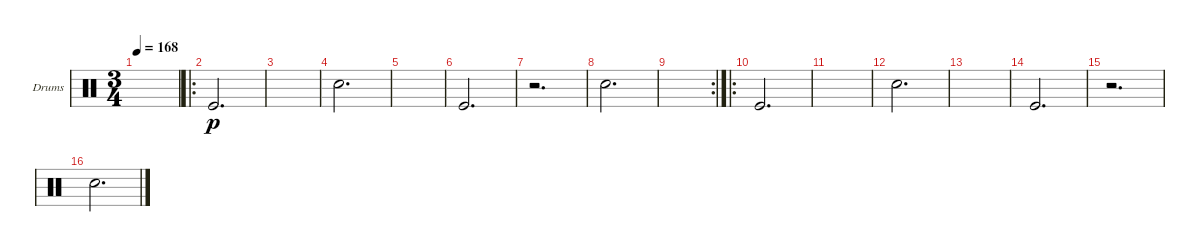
\defaultSystemsLayout 4
\bracketExtendMode groupsimilarinstruments
\firstSystemTrackNameOrientation horizontal
\otherSystemsTrackNameOrientation horizontal
\track ("Drumkit" "Drums") {instrument percussion}
\staff {score}
\articulation defaults
\ts (3 4)
\tempo 168
\clef neutral
\ks c
|
\ro "Kick (hit)".2{d dy p}
|
|
"Snare (hit) 2".2{d} |
|
"Kick (hit)".2{d} |
r.2{d} |
"Snare (hit) 2".2{d} |
\rc 2
|
\ro "Kick (hit)".2{d}
|
|
"Snare (hit) 2".2{d} |
|
"Kick (hit)".2{d} |
r.2{d} |
"Snare (hit) 2".2{d}
